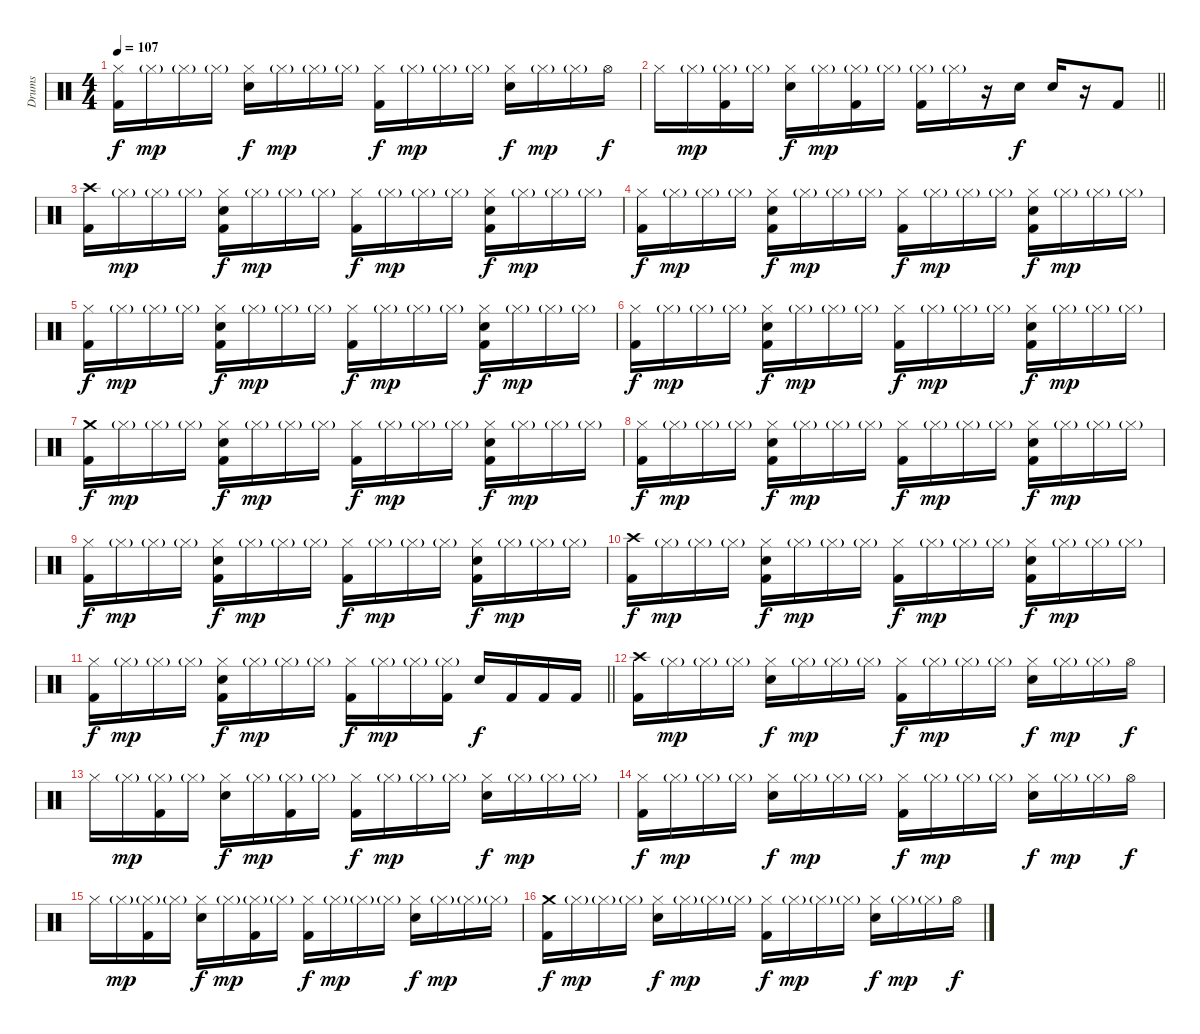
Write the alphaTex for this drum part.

\track ("Drums" "Drums") {instrument percussion}
\staff {score}
\articulation defaults
\ts (4 4)
\tempo 107
\clef neutral
\ks c
("Hi-Hat (closed)" "Kick (hit) 2").16{dy f} "Hi-Hat (closed)"{g}.16{dy mp} "Hi-Hat (closed)"{g}.16 "Hi-Hat (closed)"{g}.16 ("Hi-Hat (closed)" "Snare (hit) 2").16{dy f} "Hi-Hat (closed)"{g}.16{dy mp} "Hi-Hat (closed)"{g}.16 "Hi-Hat (closed)"{g}.16 ("Hi-Hat (closed)" "Kick (hit) 2").16{dy f} "Hi-Hat (closed)"{g}.16{dy mp} "Hi-Hat (closed)"{g}.16 "Hi-Hat (closed)"{g}.16 ("Hi-Hat (closed)" "Snare (hit) 2").16{dy f} "Hi-Hat (closed)"{g}.16{dy mp} "Hi-Hat (closed)"{g}.16 "Hi-Hat (open)".16{dy f} |
\barLineRight lightlight "Hi-Hat (closed)".16 "Hi-Hat (closed)"{g}.16{dy mp}
("Hi-Hat (closed)"{g} "Kick (hit) 2").16 "Hi-Hat (closed)"{g}.16 ("Hi-Hat (closed)" "Snare (hit) 2").16{dy f} "Hi-Hat (closed)"{g}.16{dy mp} ("Hi-Hat (closed)"{g} "Kick (hit) 2").16 "Hi-Hat (closed)"{g}.16 ("Hi-Hat (closed)"{g} "Kick (hit) 2").16 "Hi-Hat (closed)"{g}.16 r.16 "Snare (hit) 2".16{dy f} "Snare (hit) 2".16 r.16 "Kick (hit) 2".8 |
("Crash high (hit)" "Kick (hit) 2").16 "Hi-Hat (closed)"{g}.16{dy mp} "Hi-Hat (closed)"{g}.16 "Hi-Hat (closed)"{g}.16 ("Hi-Hat (closed)" "Snare (hit) 2" "Kick (hit) 2").16{dy f} "Hi-Hat (closed)"{g}.16{dy mp} "Hi-Hat (closed)"{g}.16 "Hi-Hat (closed)"{g}.16 ("Hi-Hat (closed)" "Kick (hit) 2").16{dy f} "Hi-Hat (closed)"{g}.16{dy mp} "Hi-Hat (closed)"{g}.16 "Hi-Hat (closed)"{g}.16 ("Hi-Hat (closed)" "Snare (hit) 2" "Kick (hit) 2").16{dy f} "Hi-Hat (closed)"{g}.16{dy mp} "Hi-Hat (closed)"{g}.16 "Hi-Hat (closed)"{g}.16 |
("Hi-Hat (closed)" "Kick (hit) 2").16{dy f} "Hi-Hat (closed)"{g}.16{dy mp} "Hi-Hat (closed)"{g}.16 "Hi-Hat (closed)"{g}.16 ("Hi-Hat (closed)" "Snare (hit) 2" "Kick (hit) 2").16{dy f} "Hi-Hat (closed)"{g}.16{dy mp} "Hi-Hat (closed)"{g}.16 "Hi-Hat (closed)"{g}.16 ("Hi-Hat (closed)" "Kick (hit) 2").16{dy f} "Hi-Hat (closed)"{g}.16{dy mp} "Hi-Hat (closed)"{g}.16 "Hi-Hat (closed)"{g}.16 ("Hi-Hat (closed)" "Snare (hit) 2" "Kick (hit) 2").16{dy f} "Hi-Hat (closed)"{g}.16{dy mp} "Hi-Hat (closed)"{g}.16 "Hi-Hat (closed)"{g}.16 |
("Hi-Hat (closed)" "Kick (hit) 2").16{dy f} "Hi-Hat (closed)"{g}.16{dy mp} "Hi-Hat (closed)"{g}.16 "Hi-Hat (closed)"{g}.16 ("Hi-Hat (closed)" "Snare (hit) 2" "Kick (hit) 2").16{dy f} "Hi-Hat (closed)"{g}.16{dy mp} "Hi-Hat (closed)"{g}.16 "Hi-Hat (closed)"{g}.16 ("Hi-Hat (closed)" "Kick (hit) 2").16{dy f} "Hi-Hat (closed)"{g}.16{dy mp} "Hi-Hat (closed)"{g}.16 "Hi-Hat (closed)"{g}.16 ("Hi-Hat (closed)" "Snare (hit) 2" "Kick (hit) 2").16{dy f} "Hi-Hat (closed)"{g}.16{dy mp} "Hi-Hat (closed)"{g}.16 "Hi-Hat (closed)"{g}.16 |
("Hi-Hat (closed)" "Kick (hit) 2").16{dy f} "Hi-Hat (closed)"{g}.16{dy mp} "Hi-Hat (closed)"{g}.16 "Hi-Hat (closed)"{g}.16 ("Hi-Hat (closed)" "Snare (hit) 2" "Kick (hit) 2").16{dy f} "Hi-Hat (closed)"{g}.16{dy mp} "Hi-Hat (closed)"{g}.16 "Hi-Hat (closed)"{g}.16 ("Hi-Hat (closed)" "Kick (hit) 2").16{dy f} "Hi-Hat (closed)"{g}.16{dy mp} "Hi-Hat (closed)"{g}.16 "Hi-Hat (closed)"{g}.16 ("Hi-Hat (closed)" "Snare (hit) 2" "Kick (hit) 2").16{dy f} "Hi-Hat (closed)"{g}.16{dy mp} "Hi-Hat (closed)"{g}.16 "Hi-Hat (closed)"{g}.16 |
("Crash medium (hit)" "Kick (hit) 2").16{dy f} "Hi-Hat (closed)"{g}.16{dy mp} "Hi-Hat (closed)"{g}.16 "Hi-Hat (closed)"{g}.16 ("Hi-Hat (closed)" "Snare (hit) 2" "Kick (hit) 2").16{dy f} "Hi-Hat (closed)"{g}.16{dy mp} "Hi-Hat (closed)"{g}.16 "Hi-Hat (closed)"{g}.16 ("Hi-Hat (closed)" "Kick (hit) 2").16{dy f} "Hi-Hat (closed)"{g}.16{dy mp} "Hi-Hat (closed)"{g}.16 "Hi-Hat (closed)"{g}.16 ("Hi-Hat (closed)" "Snare (hit) 2" "Kick (hit) 2").16{dy f} "Hi-Hat (closed)"{g}.16{dy mp} "Hi-Hat (closed)"{g}.16 "Hi-Hat (closed)"{g}.16 |
("Hi-Hat (closed)" "Kick (hit) 2").16{dy f} "Hi-Hat (closed)"{g}.16{dy mp} "Hi-Hat (closed)"{g}.16 "Hi-Hat (closed)"{g}.16 ("Hi-Hat (closed)" "Snare (hit) 2" "Kick (hit) 2").16{dy f} "Hi-Hat (closed)"{g}.16{dy mp} "Hi-Hat (closed)"{g}.16 "Hi-Hat (closed)"{g}.16 ("Hi-Hat (closed)" "Kick (hit) 2").16{dy f} "Hi-Hat (closed)"{g}.16{dy mp} "Hi-Hat (closed)"{g}.16 "Hi-Hat (closed)"{g}.16 ("Hi-Hat (closed)" "Snare (hit) 2" "Kick (hit) 2").16{dy f} "Hi-Hat (closed)"{g}.16{dy mp} "Hi-Hat (closed)"{g}.16 "Hi-Hat (closed)"{g}.16 |
("Hi-Hat (closed)" "Kick (hit) 2").16{dy f} "Hi-Hat (closed)"{g}.16{dy mp} "Hi-Hat (closed)"{g}.16 "Hi-Hat (closed)"{g}.16 ("Hi-Hat (closed)" "Snare (hit) 2" "Kick (hit) 2").16{dy f} "Hi-Hat (closed)"{g}.16{dy mp} "Hi-Hat (closed)"{g}.16 "Hi-Hat (closed)"{g}.16 ("Hi-Hat (closed)" "Kick (hit) 2").16{dy f} "Hi-Hat (closed)"{g}.16{dy mp} "Hi-Hat (closed)"{g}.16 "Hi-Hat (closed)"{g}.16 ("Hi-Hat (closed)" "Snare (hit) 2" "Kick (hit) 2").16{dy f} "Hi-Hat (closed)"{g}.16{dy mp} "Hi-Hat (closed)"{g}.16 "Hi-Hat (closed)"{g}.16 |
("Crash high (hit)" "Kick (hit) 2").16{dy f} "Hi-Hat (closed)"{g}.16{dy mp} "Hi-Hat (closed)"{g}.16 "Hi-Hat (closed)"{g}.16 ("Hi-Hat (closed)" "Snare (hit) 2" "Kick (hit) 2").16{dy f} "Hi-Hat (closed)"{g}.16{dy mp} "Hi-Hat (closed)"{g}.16 "Hi-Hat (closed)"{g}.16 ("Hi-Hat (closed)" "Kick (hit) 2").16{dy f} "Hi-Hat (closed)"{g}.16{dy mp} "Hi-Hat (closed)"{g}.16 "Hi-Hat (closed)"{g}.16 ("Hi-Hat (closed)" "Snare (hit) 2" "Kick (hit) 2").16{dy f} "Hi-Hat (closed)"{g}.16{dy mp} "Hi-Hat (closed)"{g}.16 "Hi-Hat (closed)"{g}.16 |
\barLineRight lightlight
("Hi-Hat (closed)" "Kick (hit) 2").16{dy f} "Hi-Hat (closed)"{g}.16{dy mp} "Hi-Hat (closed)"{g}.16 "Hi-Hat (closed)"{g}.16 ("Hi-Hat (closed)" "Snare (hit) 2" "Kick (hit) 2").16{dy f} "Hi-Hat (closed)"{g}.16{dy mp} "Hi-Hat (closed)"{g}.16 "Hi-Hat (closed)"{g}.16 ("Hi-Hat (closed)" "Kick (hit) 2").16{dy f} "Hi-Hat (closed)"{g}.16{dy mp} "Hi-Hat (closed)"{g}.16 ("Hi-Hat (closed)"{g} "Kick (hit) 2").16 "Snare (hit) 2".16{dy f} "Kick (hit) 2".16 "Kick (hit) 2".16 "Kick (hit) 2".16 |
("Crash high (hit)" "Kick (hit) 2").16 "Hi-Hat (closed)"{g}.16{dy mp} "Hi-Hat (closed)"{g}.16 "Hi-Hat (closed)"{g}.16 ("Hi-Hat (closed)" "Snare (hit) 2").16{dy f} "Hi-Hat (closed)"{g}.16{dy mp} "Hi-Hat (closed)"{g}.16 "Hi-Hat (closed)"{g}.16 ("Hi-Hat (closed)" "Kick (hit) 2").16{dy f} "Hi-Hat (closed)"{g}.16{dy mp} "Hi-Hat (closed)"{g}.16 "Hi-Hat (closed)"{g}.16 ("Hi-Hat (closed)" "Snare (hit) 2").16{dy f} "Hi-Hat (closed)"{g}.16{dy mp} "Hi-Hat (closed)"{g}.16 "Hi-Hat (open)".16{dy f} |
"Hi-Hat (closed)".16 "Hi-Hat (closed)"{g}.16{dy mp} ("Hi-Hat (closed)"{g} "Kick (hit) 2").16 "Hi-Hat (closed)"{g}.16 ("Hi-Hat (closed)" "Snare (hit) 2").16{dy f} "Hi-Hat (closed)"{g}.16{dy mp} ("Hi-Hat (closed)"{g} "Kick (hit) 2").16 "Hi-Hat (closed)"{g}.16 ("Hi-Hat (closed)" "Kick (hit) 2").16{dy f} "Hi-Hat (closed)"{g}.16{dy mp} "Hi-Hat (closed)"{g}.16 "Hi-Hat (closed)"{g}.16 ("Hi-Hat (closed)" "Snare (hit) 2").16{dy f} "Hi-Hat (closed)"{g}.16{dy mp} "Hi-Hat (closed)"{g}.16 "Hi-Hat (closed)"{g}.16 |
("Hi-Hat (closed)" "Kick (hit) 2").16{dy f} "Hi-Hat (closed)"{g}.16{dy mp} "Hi-Hat (closed)"{g}.16 "Hi-Hat (closed)"{g}.16 ("Hi-Hat (closed)" "Snare (hit) 2").16{dy f} "Hi-Hat (closed)"{g}.16{dy mp} "Hi-Hat (closed)"{g}.16 "Hi-Hat (closed)"{g}.16 ("Hi-Hat (closed)" "Kick (hit) 2").16{dy f} "Hi-Hat (closed)"{g}.16{dy mp} "Hi-Hat (closed)"{g}.16 "Hi-Hat (closed)"{g}.16 ("Hi-Hat (closed)" "Snare (hit) 2").16{dy f} "Hi-Hat (closed)"{g}.16{dy mp} "Hi-Hat (closed)"{g}.16 "Hi-Hat (open)".16{dy f} |
"Hi-Hat (closed)".16 "Hi-Hat (closed)"{g}.16{dy mp} ("Hi-Hat (closed)"{g} "Kick (hit) 2").16 "Hi-Hat (closed)"{g}.16 ("Hi-Hat (closed)" "Snare (hit) 2").16{dy f} "Hi-Hat (closed)"{g}.16{dy mp} ("Hi-Hat (closed)"{g} "Kick (hit) 2").16 "Hi-Hat (closed)"{g}.16 ("Hi-Hat (closed)" "Kick (hit) 2").16{dy f} "Hi-Hat (closed)"{g}.16{dy mp} "Hi-Hat (closed)"{g}.16 "Hi-Hat (closed)"{g}.16 ("Hi-Hat (closed)" "Snare (hit) 2").16{dy f} "Hi-Hat (closed)"{g}.16{dy mp} "Hi-Hat (closed)"{g}.16 "Hi-Hat (closed)"{g}.16 |
("Crash medium (hit)" "Kick (hit) 2").16{dy f} "Hi-Hat (closed)"{g}.16{dy mp} "Hi-Hat (closed)"{g}.16 "Hi-Hat (closed)"{g}.16 ("Hi-Hat (closed)" "Snare (hit) 2").16{dy f} "Hi-Hat (closed)"{g}.16{dy mp} "Hi-Hat (closed)"{g}.16 "Hi-Hat (closed)"{g}.16 ("Hi-Hat (closed)" "Kick (hit) 2").16{dy f} "Hi-Hat (closed)"{g}.16{dy mp} "Hi-Hat (closed)"{g}.16 "Hi-Hat (closed)"{g}.16 ("Hi-Hat (closed)" "Snare (hit) 2").16{dy f} "Hi-Hat (closed)"{g}.16{dy mp} "Hi-Hat (closed)"{g}.16 "Hi-Hat (open)".16{dy f}
